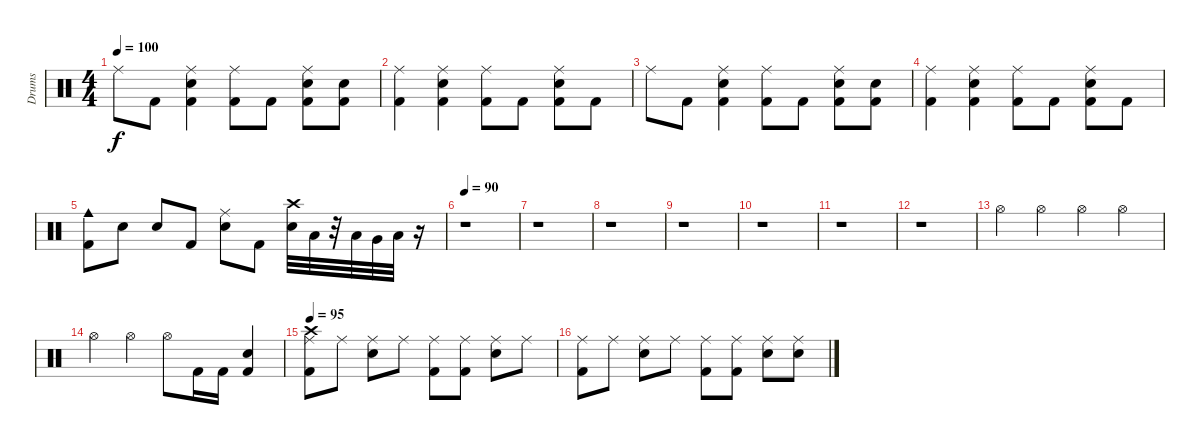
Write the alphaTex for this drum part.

\track ("Drums" "Drums") {instrument percussion}
\staff {score}
\articulation defaults
\ts (4 4)
\tempo 100
\clef neutral
\ks c "Ride (middle)".8{dy f} "Kick (hit) 2".8
("Ride (middle)" "Electric Snare (hit)" "Kick (hit) 2").4 ("Ride (middle)" "Kick (hit) 2").8 "Kick (hit) 2".8 ("Ride (middle)" "Electric Snare (hit)" "Kick (hit) 2").8 ("Electric Snare (hit)" "Kick (hit) 2").8 |
("Ride (middle)" "Kick (hit) 2").4 ("Ride (middle)" "Kick (hit) 2" "Electric Snare (hit)").4 ("Ride (middle)" "Kick (hit) 2").8 "Kick (hit) 2".8 ("Ride (middle)" "Kick (hit) 2" "Electric Snare (hit)").8 "Kick (hit) 2".8 |
"Ride (middle)".8 "Kick (hit) 2".8 ("Ride (middle)" "Electric Snare (hit)" "Kick (hit) 2").4 ("Ride (middle)" "Kick (hit) 2").8 "Kick (hit) 2".8 ("Ride (middle)" "Electric Snare (hit)" "Kick (hit) 2").8 ("Electric Snare (hit)" "Kick (hit) 2").8 |
("Ride (middle)" "Kick (hit) 2").4 ("Ride (middle)" "Kick (hit) 2" "Electric Snare (hit)").4 ("Ride (middle)" "Kick (hit) 2").8 "Kick (hit) 2".8 ("Ride (middle)" "Kick (hit) 2" "Electric Snare (hit)").8 "Kick (hit) 2".8 |
("Kick (hit) 2" "Cowbell medium (hit)").8 "Electric Snare (hit)".8 "Electric Snare (hit)".8 "Kick (hit) 2".8 ("Ride (middle)" "Electric Snare (hit)").8 "Kick (hit) 2".8 ("Crash high (hit)" "Electric Snare (hit)").32 "Low Tom (hit)".32 r.32 "Low Tom (hit)".32 "Very Low Tom (hit)".32 "Low Floor Tom (hit)".32 r.16 |
\tempo 90
r.1 |
r.1 |
r.1 |
r.1 |
r.1 |
r.1 |
r.1 |
"Hi-Hat (open)".4 "Hi-Hat (open)".4 "Hi-Hat (open)".4 "Hi-Hat (open)".4 |
"Hi-Hat (open)".4 "Hi-Hat (open)".4 "Hi-Hat (open)".8 "Kick (hit) 2".16 "Kick (hit) 2".16 ("Kick (hit) 2" "Electric Snare (hit)").4 |
\tempo 95
("Ride (middle)" "Crash high (hit)" "Kick (hit) 2").8 "Ride (middle)".8 ("Ride (middle)" "Electric Snare (hit)").8 "Ride (middle)".8 ("Ride (middle)" "Kick (hit) 2").8 ("Ride (middle)" "Kick (hit) 2").8 ("Ride (middle)" "Electric Snare (hit)").8 "Ride (middle)".8 |
("Ride (middle)" "Kick (hit) 2").8 "Ride (middle)".8 ("Ride (middle)" "Electric Snare (hit)").8 "Ride (middle)".8 ("Ride (middle)" "Kick (hit) 2").8 ("Ride (middle)" "Kick (hit) 2").8 ("Ride (middle)" "Electric Snare (hit)").8 ("Ride (middle)" "Electric Snare (hit)").8
